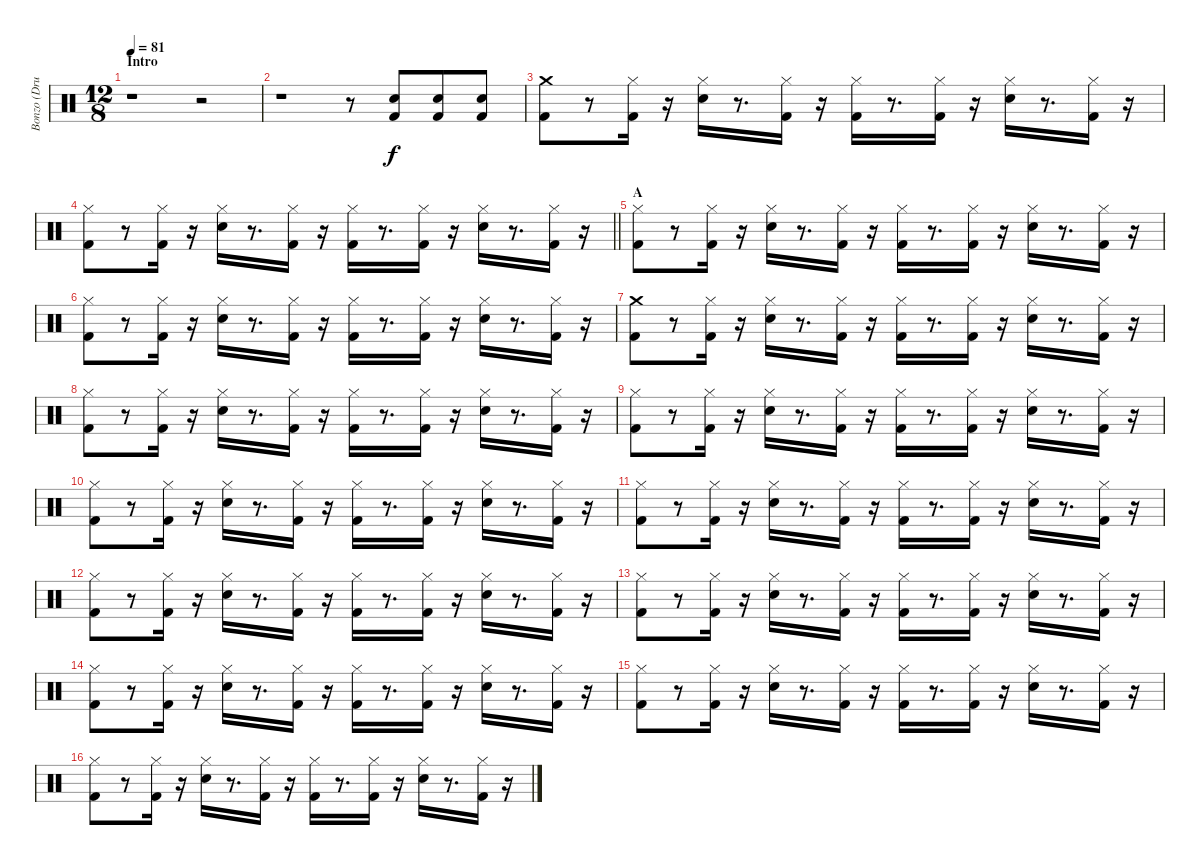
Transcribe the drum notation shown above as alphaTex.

\track ("Bonzo (Drums)" "Bonzo (Dru") {instrument percussion}
\staff {score}
\articulation defaults
\ts (12 8)
\section ("" "Intro")
\tempo 81
\clef neutral
\ks c
r.1{dy f} r.2 |
r.1 r.8 ("Electric Snare (hit)" "Kick (hit) 2").8 ("Electric Snare (hit)" "Kick (hit) 2").8 ("Electric Snare (hit)" "Kick (hit) 2").8 |
("Crash medium (hit)" "Kick (hit) 2").8 r.8 ("Kick (hit) 2" "Hi-Hat (closed)").16 r.16 ("Hi-Hat (closed)" "Electric Snare (hit)").16 r.8{d} ("Hi-Hat (closed)" "Kick (hit) 2").16 r.16 ("Hi-Hat (closed)" "Kick (hit) 2").16 r.8{d} ("Hi-Hat (closed)" "Kick (hit) 2").16 r.16 ("Hi-Hat (closed)" "Electric Snare (hit)").16 r.8{d} ("Hi-Hat (closed)" "Kick (hit) 2").16 r.16 |
\barLineRight lightlight
("Kick (hit) 2" "Hi-Hat (closed)").8 r.8 ("Kick (hit) 2" "Hi-Hat (closed)").16 r.16 ("Hi-Hat (closed)" "Electric Snare (hit)").16 r.8{d} ("Hi-Hat (closed)" "Kick (hit) 2").16 r.16 ("Hi-Hat (closed)" "Kick (hit) 2").16 r.8{d} ("Hi-Hat (closed)" "Kick (hit) 2").16 r.16 ("Hi-Hat (closed)" "Electric Snare (hit)").16 r.8{d} ("Hi-Hat (closed)" "Kick (hit) 2").16 r.16 |
\section ("" "A")
("Kick (hit) 2" "Hi-Hat (closed)").8 r.8 ("Kick (hit) 2" "Hi-Hat (closed)").16 r.16 ("Hi-Hat (closed)" "Electric Snare (hit)").16 r.8{d} ("Hi-Hat (closed)" "Kick (hit) 2").16 r.16 ("Hi-Hat (closed)" "Kick (hit) 2").16 r.8{d} ("Hi-Hat (closed)" "Kick (hit) 2").16 r.16 ("Hi-Hat (closed)" "Electric Snare (hit)").16 r.8{d} ("Hi-Hat (closed)" "Kick (hit) 2").16 r.16 |
("Kick (hit) 2" "Hi-Hat (closed)").8 r.8 ("Kick (hit) 2" "Hi-Hat (closed)").16 r.16 ("Hi-Hat (closed)" "Electric Snare (hit)").16 r.8{d} ("Hi-Hat (closed)" "Kick (hit) 2").16 r.16 ("Hi-Hat (closed)" "Kick (hit) 2").16 r.8{d} ("Hi-Hat (closed)" "Kick (hit) 2").16 r.16 ("Hi-Hat (closed)" "Electric Snare (hit)").16 r.8{d} ("Hi-Hat (closed)" "Kick (hit) 2").16 r.16 |
("Kick (hit) 2" "Crash medium (hit)").8 r.8 ("Kick (hit) 2" "Hi-Hat (closed)").16 r.16 ("Hi-Hat (closed)" "Electric Snare (hit)").16 r.8{d} ("Hi-Hat (closed)" "Kick (hit) 2").16 r.16 ("Hi-Hat (closed)" "Kick (hit) 2").16 r.8{d} ("Hi-Hat (closed)" "Kick (hit) 2").16 r.16 ("Hi-Hat (closed)" "Electric Snare (hit)").16 r.8{d} ("Hi-Hat (closed)" "Kick (hit) 2").16 r.16 |
("Kick (hit) 2" "Hi-Hat (closed)").8 r.8 ("Kick (hit) 2" "Hi-Hat (closed)").16 r.16 ("Hi-Hat (closed)" "Electric Snare (hit)").16 r.8{d} ("Hi-Hat (closed)" "Kick (hit) 2").16 r.16 ("Hi-Hat (closed)" "Kick (hit) 2").16 r.8{d} ("Hi-Hat (closed)" "Kick (hit) 2").16 r.16 ("Hi-Hat (closed)" "Electric Snare (hit)").16 r.8{d} ("Hi-Hat (closed)" "Kick (hit) 2").16 r.16 |
("Kick (hit) 2" "Hi-Hat (closed)").8 r.8 ("Kick (hit) 2" "Hi-Hat (closed)").16 r.16 ("Hi-Hat (closed)" "Electric Snare (hit)").16 r.8{d} ("Hi-Hat (closed)" "Kick (hit) 2").16 r.16 ("Hi-Hat (closed)" "Kick (hit) 2").16 r.8{d} ("Hi-Hat (closed)" "Kick (hit) 2").16 r.16 ("Hi-Hat (closed)" "Electric Snare (hit)").16 r.8{d} ("Hi-Hat (closed)" "Kick (hit) 2").16 r.16 |
("Kick (hit) 2" "Hi-Hat (closed)").8 r.8 ("Kick (hit) 2" "Hi-Hat (closed)").16 r.16 ("Hi-Hat (closed)" "Electric Snare (hit)").16 r.8{d} ("Hi-Hat (closed)" "Kick (hit) 2").16 r.16 ("Hi-Hat (closed)" "Kick (hit) 2").16 r.8{d} ("Hi-Hat (closed)" "Kick (hit) 2").16 r.16 ("Hi-Hat (closed)" "Electric Snare (hit)").16 r.8{d} ("Hi-Hat (closed)" "Kick (hit) 2").16 r.16 |
("Kick (hit) 2" "Hi-Hat (closed)").8 r.8 ("Kick (hit) 2" "Hi-Hat (closed)").16 r.16 ("Hi-Hat (closed)" "Electric Snare (hit)").16 r.8{d} ("Hi-Hat (closed)" "Kick (hit) 2").16 r.16 ("Hi-Hat (closed)" "Kick (hit) 2").16 r.8{d} ("Hi-Hat (closed)" "Kick (hit) 2").16 r.16 ("Hi-Hat (closed)" "Electric Snare (hit)").16 r.8{d} ("Hi-Hat (closed)" "Kick (hit) 2").16 r.16 |
("Kick (hit) 2" "Hi-Hat (closed)").8 r.8 ("Kick (hit) 2" "Hi-Hat (closed)").16 r.16 ("Hi-Hat (closed)" "Electric Snare (hit)").16 r.8{d} ("Hi-Hat (closed)" "Kick (hit) 2").16 r.16 ("Hi-Hat (closed)" "Kick (hit) 2").16 r.8{d} ("Hi-Hat (closed)" "Kick (hit) 2").16 r.16 ("Hi-Hat (closed)" "Electric Snare (hit)").16 r.8{d} ("Hi-Hat (closed)" "Kick (hit) 2").16 r.16 |
("Kick (hit) 2" "Hi-Hat (closed)").8 r.8 ("Kick (hit) 2" "Hi-Hat (closed)").16 r.16 ("Hi-Hat (closed)" "Electric Snare (hit)").16 r.8{d} ("Hi-Hat (closed)" "Kick (hit) 2").16 r.16 ("Hi-Hat (closed)" "Kick (hit) 2").16 r.8{d} ("Hi-Hat (closed)" "Kick (hit) 2").16 r.16 ("Hi-Hat (closed)" "Electric Snare (hit)").16 r.8{d} ("Hi-Hat (closed)" "Kick (hit) 2").16 r.16 |
("Kick (hit) 2" "Hi-Hat (closed)").8 r.8 ("Kick (hit) 2" "Hi-Hat (closed)").16 r.16 ("Hi-Hat (closed)" "Electric Snare (hit)").16 r.8{d} ("Hi-Hat (closed)" "Kick (hit) 2").16 r.16 ("Hi-Hat (closed)" "Kick (hit) 2").16 r.8{d} ("Hi-Hat (closed)" "Kick (hit) 2").16 r.16 ("Hi-Hat (closed)" "Electric Snare (hit)").16 r.8{d} ("Hi-Hat (closed)" "Kick (hit) 2").16 r.16 |
("Kick (hit) 2" "Hi-Hat (closed)").8 r.8 ("Kick (hit) 2" "Hi-Hat (closed)").16 r.16 ("Hi-Hat (closed)" "Electric Snare (hit)").16 r.8{d} ("Hi-Hat (closed)" "Kick (hit) 2").16 r.16 ("Hi-Hat (closed)" "Kick (hit) 2").16 r.8{d} ("Hi-Hat (closed)" "Kick (hit) 2").16 r.16 ("Hi-Hat (closed)" "Electric Snare (hit)").16 r.8{d} ("Hi-Hat (closed)" "Kick (hit) 2").16 r.16 |
("Kick (hit) 2" "Hi-Hat (closed)").8 r.8 ("Kick (hit) 2" "Hi-Hat (closed)").16 r.16 ("Hi-Hat (closed)" "Electric Snare (hit)").16 r.8{d} ("Hi-Hat (closed)" "Kick (hit) 2").16 r.16 ("Hi-Hat (closed)" "Kick (hit) 2").16 r.8{d} ("Hi-Hat (closed)" "Kick (hit) 2").16 r.16 ("Hi-Hat (closed)" "Electric Snare (hit)").16 r.8{d} ("Hi-Hat (closed)" "Kick (hit) 2").16 r.16
